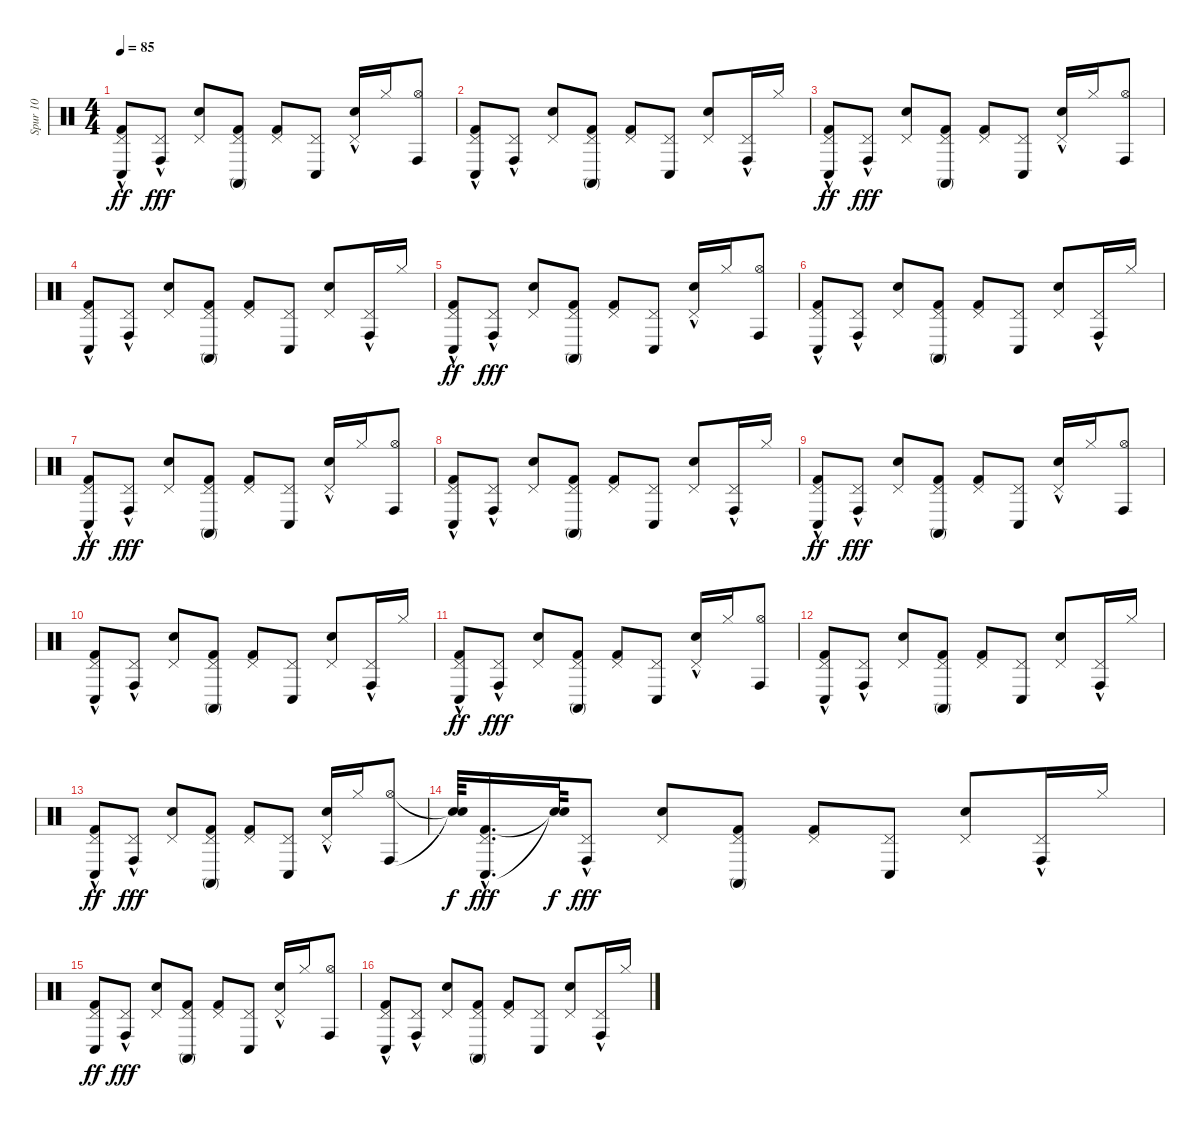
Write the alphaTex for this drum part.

\track ("Spur 10" "Spur 10") {instrument percussion}
\staff {score}
\articulation defaults
\ts (4 4)
\tempo 85
\clef neutral
\ks c
("Pedal Hi-Hat (hit)"{hac} "Kick (hit) 2" "Conga low (hit)").8{dy ff} ("Conga high (hit)" "Pedal Hi-Hat (hit)"{hac}).8{dy fff} ("Pedal Hi-Hat (hit)" "Snare (hit) 2").8 ("Kick (hit) 2" "Conga high (mute)" "Pedal Hi-Hat (hit)").8 ("Kick (hit) 2" "Pedal Hi-Hat (hit)").8 ("Conga low (hit)" "Pedal Hi-Hat (hit)").8 ("Snare (hit) 2" "Pedal Hi-Hat (hit)"{hac}).16 "Hi-Hat (closed)".16 ("Conga high (hit)" "Hi-Hat (open)").8 |
("Kick (hit) 2" "Conga low (hit)" "Pedal Hi-Hat (hit)"{hac}).8 ("Conga high (hit)" "Pedal Hi-Hat (hit)"{hac}).8 ("Snare (hit) 2" "Pedal Hi-Hat (hit)").8 ("Kick (hit) 2" "Conga high (mute)" "Pedal Hi-Hat (hit)").8 ("Kick (hit) 2" "Pedal Hi-Hat (hit)").8 ("Conga low (hit)" "Pedal Hi-Hat (hit)").8 ("Snare (hit) 2" "Pedal Hi-Hat (hit)").8 ("Conga high (hit)" "Pedal Hi-Hat (hit)"{hac}).16 "Hi-Hat (closed)".16 |
("Pedal Hi-Hat (hit)"{hac} "Kick (hit) 2" "Conga low (hit)").8{dy ff} ("Conga high (hit)" "Pedal Hi-Hat (hit)"{hac}).8{dy fff} ("Pedal Hi-Hat (hit)" "Snare (hit) 2").8 ("Kick (hit) 2" "Conga high (mute)" "Pedal Hi-Hat (hit)").8 ("Kick (hit) 2" "Pedal Hi-Hat (hit)").8 ("Conga low (hit)" "Pedal Hi-Hat (hit)").8 ("Snare (hit) 2" "Pedal Hi-Hat (hit)"{hac}).16 "Hi-Hat (closed)".16 ("Conga high (hit)" "Hi-Hat (open)").8 |
("Kick (hit) 2" "Conga low (hit)" "Pedal Hi-Hat (hit)"{hac}).8 ("Conga high (hit)" "Pedal Hi-Hat (hit)"{hac}).8 ("Snare (hit) 2" "Pedal Hi-Hat (hit)").8 ("Kick (hit) 2" "Conga high (mute)" "Pedal Hi-Hat (hit)").8 ("Kick (hit) 2" "Pedal Hi-Hat (hit)").8 ("Conga low (hit)" "Pedal Hi-Hat (hit)").8 ("Snare (hit) 2" "Pedal Hi-Hat (hit)").8 ("Conga high (hit)" "Pedal Hi-Hat (hit)"{hac}).16 "Hi-Hat (closed)".16 |
("Pedal Hi-Hat (hit)"{hac} "Kick (hit) 2" "Conga low (hit)").8{dy ff} ("Conga high (hit)" "Pedal Hi-Hat (hit)"{hac}).8{dy fff} ("Pedal Hi-Hat (hit)" "Snare (hit) 2").8 ("Kick (hit) 2" "Conga high (mute)" "Pedal Hi-Hat (hit)").8 ("Kick (hit) 2" "Pedal Hi-Hat (hit)").8 ("Conga low (hit)" "Pedal Hi-Hat (hit)").8 ("Snare (hit) 2" "Pedal Hi-Hat (hit)"{hac}).16 "Hi-Hat (closed)".16 ("Conga high (hit)" "Hi-Hat (open)").8 |
("Kick (hit) 2" "Conga low (hit)" "Pedal Hi-Hat (hit)"{hac}).8 ("Conga high (hit)" "Pedal Hi-Hat (hit)"{hac}).8 ("Snare (hit) 2" "Pedal Hi-Hat (hit)").8 ("Kick (hit) 2" "Conga high (mute)" "Pedal Hi-Hat (hit)").8 ("Kick (hit) 2" "Pedal Hi-Hat (hit)").8 ("Conga low (hit)" "Pedal Hi-Hat (hit)").8 ("Snare (hit) 2" "Pedal Hi-Hat (hit)").8 ("Conga high (hit)" "Pedal Hi-Hat (hit)"{hac}).16 "Hi-Hat (closed)".16 |
("Pedal Hi-Hat (hit)"{hac} "Kick (hit) 2" "Conga low (hit)").8{dy ff} ("Conga high (hit)" "Pedal Hi-Hat (hit)"{hac}).8{dy fff} ("Pedal Hi-Hat (hit)" "Snare (hit) 2").8 ("Kick (hit) 2" "Conga high (mute)" "Pedal Hi-Hat (hit)").8 ("Kick (hit) 2" "Pedal Hi-Hat (hit)").8 ("Conga low (hit)" "Pedal Hi-Hat (hit)").8 ("Snare (hit) 2" "Pedal Hi-Hat (hit)"{hac}).16 "Hi-Hat (closed)".16 ("Conga high (hit)" "Hi-Hat (open)").8 |
("Kick (hit) 2" "Conga low (hit)" "Pedal Hi-Hat (hit)"{hac}).8 ("Conga high (hit)" "Pedal Hi-Hat (hit)"{hac}).8 ("Snare (hit) 2" "Pedal Hi-Hat (hit)").8 ("Kick (hit) 2" "Conga high (mute)" "Pedal Hi-Hat (hit)").8 ("Kick (hit) 2" "Pedal Hi-Hat (hit)").8 ("Conga low (hit)" "Pedal Hi-Hat (hit)").8 ("Snare (hit) 2" "Pedal Hi-Hat (hit)").8 ("Conga high (hit)" "Pedal Hi-Hat (hit)"{hac}).16 "Hi-Hat (closed)".16 |
("Pedal Hi-Hat (hit)"{hac} "Kick (hit) 2" "Conga low (hit)").8{dy ff} ("Conga high (hit)" "Pedal Hi-Hat (hit)"{hac}).8{dy fff} ("Pedal Hi-Hat (hit)" "Snare (hit) 2").8 ("Kick (hit) 2" "Conga high (mute)" "Pedal Hi-Hat (hit)").8 ("Kick (hit) 2" "Pedal Hi-Hat (hit)").8 ("Conga low (hit)" "Pedal Hi-Hat (hit)").8 ("Snare (hit) 2" "Pedal Hi-Hat (hit)"{hac}).16 "Hi-Hat (closed)".16 ("Conga high (hit)" "Hi-Hat (open)").8 |
("Kick (hit) 2" "Conga low (hit)" "Pedal Hi-Hat (hit)"{hac}).8 ("Conga high (hit)" "Pedal Hi-Hat (hit)"{hac}).8 ("Snare (hit) 2" "Pedal Hi-Hat (hit)").8 ("Kick (hit) 2" "Conga high (mute)" "Pedal Hi-Hat (hit)").8 ("Kick (hit) 2" "Pedal Hi-Hat (hit)").8 ("Conga low (hit)" "Pedal Hi-Hat (hit)").8 ("Snare (hit) 2" "Pedal Hi-Hat (hit)").8 ("Conga high (hit)" "Pedal Hi-Hat (hit)"{hac}).16 "Hi-Hat (closed)".16 |
("Pedal Hi-Hat (hit)"{hac} "Kick (hit) 2" "Conga low (hit)").8{dy ff} ("Conga high (hit)" "Pedal Hi-Hat (hit)"{hac}).8{dy fff} ("Pedal Hi-Hat (hit)" "Snare (hit) 2").8 ("Kick (hit) 2" "Conga high (mute)" "Pedal Hi-Hat (hit)").8 ("Kick (hit) 2" "Pedal Hi-Hat (hit)").8 ("Conga low (hit)" "Pedal Hi-Hat (hit)").8 ("Snare (hit) 2" "Pedal Hi-Hat (hit)"{hac}).16 "Hi-Hat (closed)".16 ("Conga high (hit)" "Hi-Hat (open)").8 |
("Kick (hit) 2" "Conga low (hit)" "Pedal Hi-Hat (hit)"{hac}).8 ("Conga high (hit)" "Pedal Hi-Hat (hit)"{hac}).8 ("Snare (hit) 2" "Pedal Hi-Hat (hit)").8 ("Kick (hit) 2" "Conga high (mute)" "Pedal Hi-Hat (hit)").8 ("Kick (hit) 2" "Pedal Hi-Hat (hit)").8 ("Conga low (hit)" "Pedal Hi-Hat (hit)").8 ("Snare (hit) 2" "Pedal Hi-Hat (hit)").8 ("Conga high (hit)" "Pedal Hi-Hat (hit)"{hac}).16 "Hi-Hat (closed)".16 |
("Pedal Hi-Hat (hit)"{hac} "Kick (hit) 2" "Conga low (hit)").8{dy ff} ("Conga high (hit)" "Pedal Hi-Hat (hit)"{hac}).8{dy fff} ("Pedal Hi-Hat (hit)" "Snare (hit) 2").8 ("Kick (hit) 2" "Conga high (mute)" "Pedal Hi-Hat (hit)").8 ("Kick (hit) 2" "Pedal Hi-Hat (hit)").8 ("Conga low (hit)" "Pedal Hi-Hat (hit)").8 ("Snare (hit) 2" "Pedal Hi-Hat (hit)"{hac}).16 "Hi-Hat (closed)".16 ("Conga high (hit)" "Hi-Hat (open)").8 |
("Snare (hit)"{t} "Snare (hit)"{t}).64{dy f} ("Kick (hit) 2"{hac} "Conga low (hit)"{hac} "Pedal Hi-Hat (hit)").16{d dy fff} ("Snare (hit)"{t} "Snare (hit)"{t}).64{dy f} ("Conga high (hit)" "Pedal Hi-Hat (hit)"{hac}).8{dy fff} ("Snare (hit) 2" "Pedal Hi-Hat (hit)").8 ("Kick (hit) 2" "Conga high (mute)" "Pedal Hi-Hat (hit)").8 ("Kick (hit) 2" "Pedal Hi-Hat (hit)").8 ("Conga low (hit)" "Pedal Hi-Hat (hit)").8 ("Snare (hit) 2" "Pedal Hi-Hat (hit)").8 ("Conga high (hit)" "Pedal Hi-Hat (hit)"{hac}).16 "Hi-Hat (closed)".16 |
("Pedal Hi-Hat (hit)" "Kick (hit) 2" "Conga low (hit)").8{dy ff} ("Conga high (hit)" "Pedal Hi-Hat (hit)"{hac}).8{dy fff} ("Pedal Hi-Hat (hit)" "Snare (hit) 2").8 ("Kick (hit) 2" "Conga high (mute)" "Pedal Hi-Hat (hit)").8 ("Kick (hit) 2" "Pedal Hi-Hat (hit)").8 ("Conga low (hit)" "Pedal Hi-Hat (hit)").8 ("Snare (hit) 2" "Pedal Hi-Hat (hit)"{hac}).16 "Hi-Hat (closed)".16 ("Conga high (hit)" "Hi-Hat (open)").8 |
("Kick (hit) 2" "Conga low (hit)" "Pedal Hi-Hat (hit)"{hac}).8 ("Conga high (hit)" "Pedal Hi-Hat (hit)"{hac}).8 ("Snare (hit) 2" "Pedal Hi-Hat (hit)").8 ("Kick (hit) 2" "Conga high (mute)" "Pedal Hi-Hat (hit)").8 ("Kick (hit) 2" "Pedal Hi-Hat (hit)").8 ("Conga low (hit)" "Pedal Hi-Hat (hit)").8 ("Snare (hit) 2" "Pedal Hi-Hat (hit)").8 ("Conga high (hit)" "Pedal Hi-Hat (hit)"{hac}).16 "Hi-Hat (closed)".16
